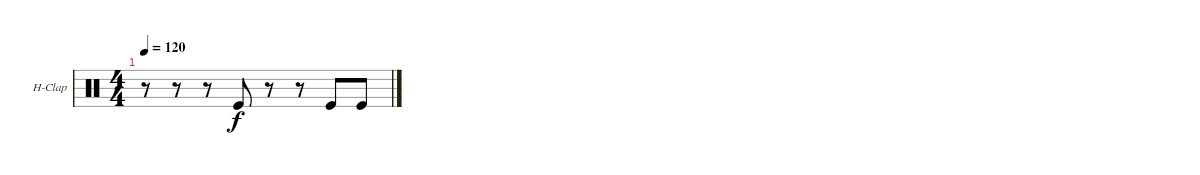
\defaultSystemsLayout 4
\bracketExtendMode groupsimilarinstruments
\firstSystemTrackNameOrientation horizontal
\otherSystemsTrackNameOrientation horizontal
\track ("Hand Clap" "H-Clap") {instrument percussion}
\staff {score}
\articulation defaults
\ts (4 4)
\tempo 120
\clef neutral
\ks c
r.8{dy f} r.8 r.8 "Kick (hit)".8 r.8 r.8 "Kick (hit)".8 "Kick (hit)".8
